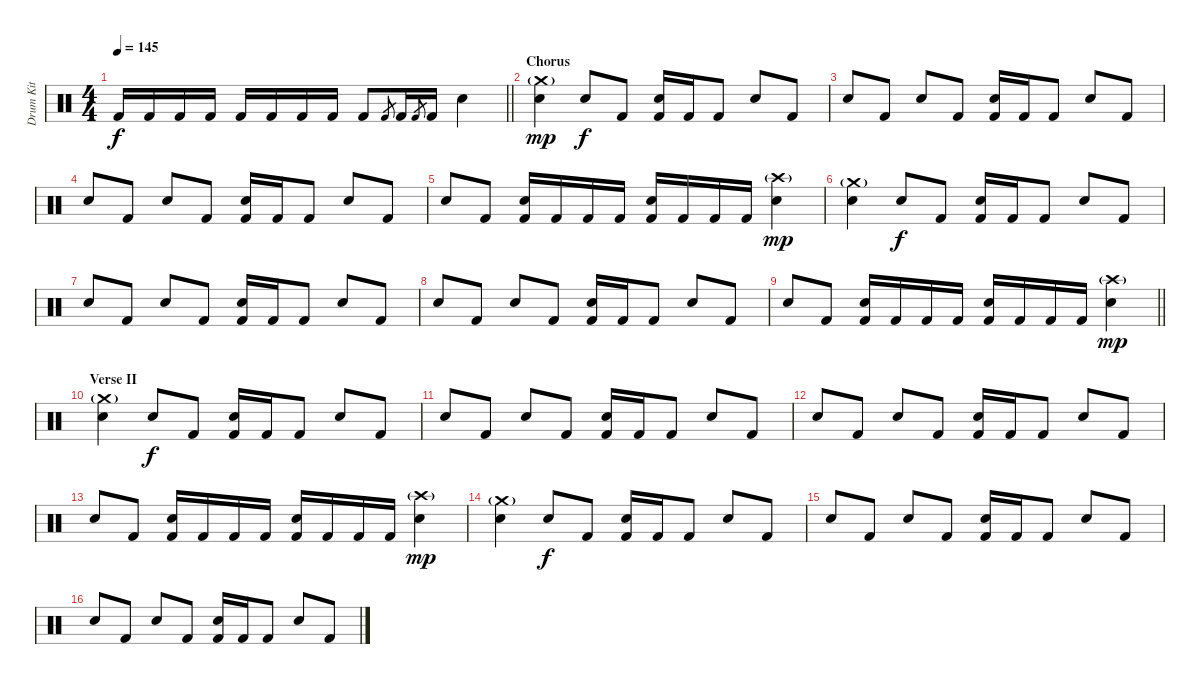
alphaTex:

\track ("Drum Kit" "Drum Kit") {instrument percussion}
\staff {score}
\articulation defaults
\ts (4 4)
\tempo 145
\clef neutral
\barLineRight lightlight
\ks c "Kick (hit) 2".16{dy f} "Kick (hit) 2".16 "Kick (hit) 2".16 "Kick (hit) 2".16 "Kick (hit) 2".16 "Kick (hit) 2".16 "Kick (hit) 2".16 "Kick (hit) 2".16 "Kick (hit) 2".8 "Kick (hit) 2".8{gr} "Kick (hit) 2".16 "Kick (hit) 2".8{gr} "Kick (hit) 2".16 "Electric Snare (hit)".4
|
\section ("" "Chorus")
("Crash medium (hit)"{g} "Electric Snare (hit)").4{dy mp} "Electric Snare (hit)".8{dy f} "Kick (hit) 2".8 ("Electric Snare (hit)" "Kick (hit) 2").16 "Kick (hit) 2".16 "Kick (hit) 2".8 "Electric Snare (hit)".8 "Kick (hit) 2".8 |
"Electric Snare (hit)".8 "Kick (hit) 2".8 "Electric Snare (hit)".8 "Kick (hit) 2".8 ("Electric Snare (hit)" "Kick (hit) 2").16 "Kick (hit) 2".16 "Kick (hit) 2".8 "Electric Snare (hit)".8 "Kick (hit) 2".8 |
"Electric Snare (hit)".8 "Kick (hit) 2".8 "Electric Snare (hit)".8 "Kick (hit) 2".8 ("Electric Snare (hit)" "Kick (hit) 2").16 "Kick (hit) 2".16 "Kick (hit) 2".8 "Electric Snare (hit)".8 "Kick (hit) 2".8 |
"Electric Snare (hit)".8 "Kick (hit) 2".8 ("Electric Snare (hit)" "Kick (hit) 2").16 "Kick (hit) 2".16 "Kick (hit) 2".16 "Kick (hit) 2".16 ("Electric Snare (hit)" "Kick (hit) 2").16 "Kick (hit) 2".16 "Kick (hit) 2".16 "Kick (hit) 2".16 ("Crash high (hit)"{g} "Electric Snare (hit)").4{dy mp} |
("Crash medium (hit)"{g} "Electric Snare (hit)").4 "Electric Snare (hit)".8{dy f} "Kick (hit) 2".8 ("Electric Snare (hit)" "Kick (hit) 2").16 "Kick (hit) 2".16 "Kick (hit) 2".8 "Electric Snare (hit)".8 "Kick (hit) 2".8 |
"Electric Snare (hit)".8 "Kick (hit) 2".8 "Electric Snare (hit)".8 "Kick (hit) 2".8 ("Electric Snare (hit)" "Kick (hit) 2").16 "Kick (hit) 2".16 "Kick (hit) 2".8 "Electric Snare (hit)".8 "Kick (hit) 2".8 |
"Electric Snare (hit)".8 "Kick (hit) 2".8 "Electric Snare (hit)".8 "Kick (hit) 2".8 ("Electric Snare (hit)" "Kick (hit) 2").16 "Kick (hit) 2".16 "Kick (hit) 2".8 "Electric Snare (hit)".8 "Kick (hit) 2".8 |
\barLineRight lightlight "Electric Snare (hit)".8 "Kick (hit) 2".8
("Electric Snare (hit)" "Kick (hit) 2").16 "Kick (hit) 2".16 "Kick (hit) 2".16 "Kick (hit) 2".16 ("Electric Snare (hit)" "Kick (hit) 2").16 "Kick (hit) 2".16 "Kick (hit) 2".16 "Kick (hit) 2".16 ("Crash high (hit)"{g} "Electric Snare (hit)").4{dy mp} |
\section ("" "Verse II")
("Crash medium (hit)"{g} "Electric Snare (hit)").4 "Electric Snare (hit)".8{dy f} "Kick (hit) 2".8 ("Electric Snare (hit)" "Kick (hit) 2").16 "Kick (hit) 2".16 "Kick (hit) 2".8 "Electric Snare (hit)".8 "Kick (hit) 2".8 |
"Electric Snare (hit)".8 "Kick (hit) 2".8 "Electric Snare (hit)".8 "Kick (hit) 2".8 ("Electric Snare (hit)" "Kick (hit) 2").16 "Kick (hit) 2".16 "Kick (hit) 2".8 "Electric Snare (hit)".8 "Kick (hit) 2".8 |
"Electric Snare (hit)".8 "Kick (hit) 2".8 "Electric Snare (hit)".8 "Kick (hit) 2".8 ("Electric Snare (hit)" "Kick (hit) 2").16 "Kick (hit) 2".16 "Kick (hit) 2".8 "Electric Snare (hit)".8 "Kick (hit) 2".8 |
"Electric Snare (hit)".8 "Kick (hit) 2".8 ("Electric Snare (hit)" "Kick (hit) 2").16 "Kick (hit) 2".16 "Kick (hit) 2".16 "Kick (hit) 2".16 ("Electric Snare (hit)" "Kick (hit) 2").16 "Kick (hit) 2".16 "Kick (hit) 2".16 "Kick (hit) 2".16 ("Crash high (hit)"{g} "Electric Snare (hit)").4{dy mp} |
("Crash medium (hit)"{g} "Electric Snare (hit)").4 "Electric Snare (hit)".8{dy f} "Kick (hit) 2".8 ("Electric Snare (hit)" "Kick (hit) 2").16 "Kick (hit) 2".16 "Kick (hit) 2".8 "Electric Snare (hit)".8 "Kick (hit) 2".8 |
"Electric Snare (hit)".8 "Kick (hit) 2".8 "Electric Snare (hit)".8 "Kick (hit) 2".8 ("Electric Snare (hit)" "Kick (hit) 2").16 "Kick (hit) 2".16 "Kick (hit) 2".8 "Electric Snare (hit)".8 "Kick (hit) 2".8 |
"Electric Snare (hit)".8 "Kick (hit) 2".8 "Electric Snare (hit)".8 "Kick (hit) 2".8 ("Electric Snare (hit)" "Kick (hit) 2").16 "Kick (hit) 2".16 "Kick (hit) 2".8 "Electric Snare (hit)".8 "Kick (hit) 2".8
